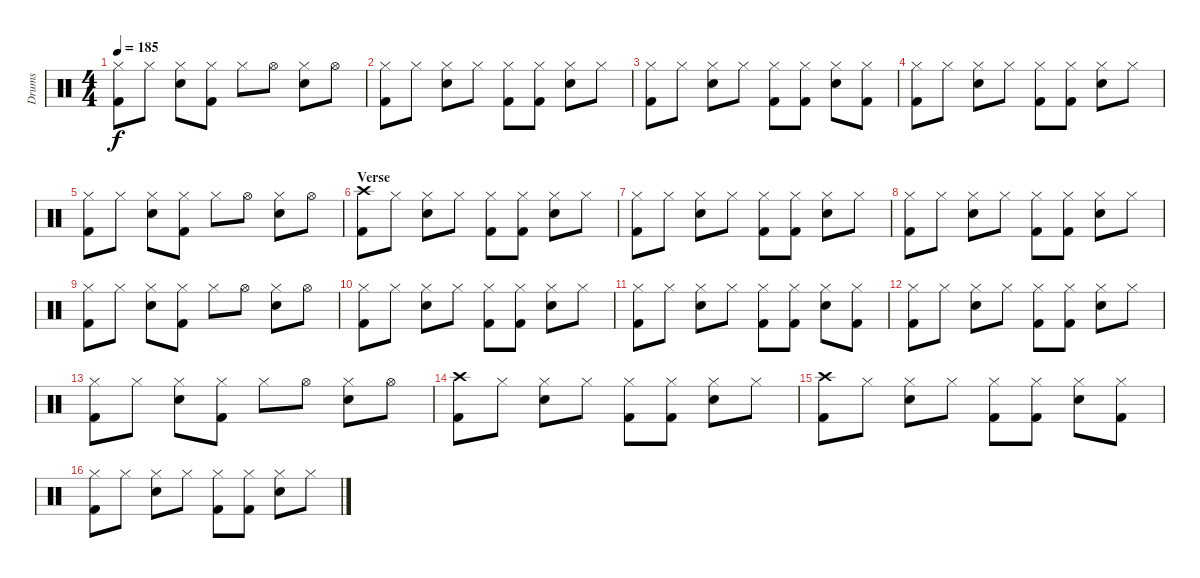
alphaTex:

\track ("Drums" "Drums") {instrument percussion}
\staff {score}
\articulation defaults
\ts (4 4)
\tempo 185
\clef neutral
\ks c
("Hi-Hat (closed)" "Kick (hit) 2").8{dy f} "Hi-Hat (closed)".8 ("Hi-Hat (closed)" "Electric Snare (hit)").8 ("Hi-Hat (closed)" "Kick (hit) 2").8 "Hi-Hat (closed)".8 "Hi-Hat (open)".8 ("Hi-Hat (closed)" "Electric Snare (hit)").8 "Hi-Hat (open)".8 |
("Hi-Hat (closed)" "Kick (hit) 2").8 "Hi-Hat (closed)".8 ("Hi-Hat (closed)" "Electric Snare (hit)").8 "Hi-Hat (closed)".8 ("Hi-Hat (closed)" "Kick (hit) 2").8 ("Hi-Hat (closed)" "Kick (hit) 2").8 ("Hi-Hat (closed)" "Electric Snare (hit)").8 "Hi-Hat (closed)".8 |
("Hi-Hat (closed)" "Kick (hit) 2").8 "Hi-Hat (closed)".8 ("Hi-Hat (closed)" "Electric Snare (hit)").8 "Hi-Hat (closed)".8 ("Hi-Hat (closed)" "Kick (hit) 2").8 ("Hi-Hat (closed)" "Kick (hit) 2").8 ("Hi-Hat (closed)" "Electric Snare (hit)").8 ("Hi-Hat (closed)" "Kick (hit) 2").8 |
("Hi-Hat (closed)" "Kick (hit) 2").8 "Hi-Hat (closed)".8 ("Hi-Hat (closed)" "Electric Snare (hit)").8 "Hi-Hat (closed)".8 ("Hi-Hat (closed)" "Kick (hit) 2").8 ("Hi-Hat (closed)" "Kick (hit) 2").8 ("Hi-Hat (closed)" "Electric Snare (hit)").8 "Hi-Hat (closed)".8 |
("Hi-Hat (closed)" "Kick (hit) 2").8 "Hi-Hat (closed)".8 ("Hi-Hat (closed)" "Electric Snare (hit)").8 ("Hi-Hat (closed)" "Kick (hit) 2").8 "Hi-Hat (closed)".8 "Hi-Hat (open)".8 ("Hi-Hat (closed)" "Electric Snare (hit)").8 "Hi-Hat (open)".8 |
\section ("" "Verse")
("Crash high (hit)" "Kick (hit) 2").8 "Hi-Hat (closed)".8 ("Hi-Hat (closed)" "Electric Snare (hit)").8 "Hi-Hat (closed)".8 ("Hi-Hat (closed)" "Kick (hit) 2").8 ("Hi-Hat (closed)" "Kick (hit) 2").8 ("Hi-Hat (closed)" "Electric Snare (hit)").8 "Hi-Hat (closed)".8 |
("Hi-Hat (closed)" "Kick (hit) 2").8 "Hi-Hat (closed)".8 ("Hi-Hat (closed)" "Electric Snare (hit)").8 "Hi-Hat (closed)".8 ("Hi-Hat (closed)" "Kick (hit) 2").8 ("Hi-Hat (closed)" "Kick (hit) 2").8 ("Hi-Hat (closed)" "Electric Snare (hit)").8 "Hi-Hat (closed)".8 |
("Hi-Hat (closed)" "Kick (hit) 2").8 "Hi-Hat (closed)".8 ("Hi-Hat (closed)" "Electric Snare (hit)").8 "Hi-Hat (closed)".8 ("Hi-Hat (closed)" "Kick (hit) 2").8 ("Hi-Hat (closed)" "Kick (hit) 2").8 ("Hi-Hat (closed)" "Electric Snare (hit)").8 "Hi-Hat (closed)".8 |
("Hi-Hat (closed)" "Kick (hit) 2").8 "Hi-Hat (closed)".8 ("Hi-Hat (closed)" "Electric Snare (hit)").8 ("Hi-Hat (closed)" "Kick (hit) 2").8 "Hi-Hat (closed)".8 "Hi-Hat (open)".8 ("Hi-Hat (closed)" "Electric Snare (hit)").8 "Hi-Hat (open)".8 |
("Hi-Hat (closed)" "Kick (hit) 2").8 "Hi-Hat (closed)".8 ("Hi-Hat (closed)" "Electric Snare (hit)").8 "Hi-Hat (closed)".8 ("Hi-Hat (closed)" "Kick (hit) 2").8 ("Hi-Hat (closed)" "Kick (hit) 2").8 ("Hi-Hat (closed)" "Electric Snare (hit)").8 "Hi-Hat (closed)".8 |
("Hi-Hat (closed)" "Kick (hit) 2").8 "Hi-Hat (closed)".8 ("Hi-Hat (closed)" "Electric Snare (hit)").8 "Hi-Hat (closed)".8 ("Hi-Hat (closed)" "Kick (hit) 2").8 ("Hi-Hat (closed)" "Kick (hit) 2").8 ("Hi-Hat (closed)" "Electric Snare (hit)").8 ("Hi-Hat (closed)" "Kick (hit) 2").8 |
("Hi-Hat (closed)" "Kick (hit) 2").8 "Hi-Hat (closed)".8 ("Hi-Hat (closed)" "Electric Snare (hit)").8 "Hi-Hat (closed)".8 ("Hi-Hat (closed)" "Kick (hit) 2").8 ("Hi-Hat (closed)" "Kick (hit) 2").8 ("Hi-Hat (closed)" "Electric Snare (hit)").8 "Hi-Hat (closed)".8 |
("Hi-Hat (closed)" "Kick (hit) 2").8 "Hi-Hat (closed)".8 ("Hi-Hat (closed)" "Electric Snare (hit)").8 ("Hi-Hat (closed)" "Kick (hit) 2").8 "Hi-Hat (closed)".8 "Hi-Hat (open)".8 ("Hi-Hat (closed)" "Electric Snare (hit)").8 "Hi-Hat (open)".8 |
("Crash high (hit)" "Kick (hit) 2").8 "Hi-Hat (closed)".8 ("Hi-Hat (closed)" "Electric Snare (hit)").8 "Hi-Hat (closed)".8 ("Hi-Hat (closed)" "Kick (hit) 2").8 ("Hi-Hat (closed)" "Kick (hit) 2").8 ("Hi-Hat (closed)" "Electric Snare (hit)").8 "Hi-Hat (closed)".8 |
("Crash high (hit)" "Kick (hit) 2").8 "Hi-Hat (closed)".8 ("Hi-Hat (closed)" "Electric Snare (hit)").8 "Hi-Hat (closed)".8 ("Hi-Hat (closed)" "Kick (hit) 2").8 ("Hi-Hat (closed)" "Kick (hit) 2").8 ("Hi-Hat (closed)" "Electric Snare (hit)").8 ("Hi-Hat (closed)" "Kick (hit) 2").8 |
("Hi-Hat (closed)" "Kick (hit) 2").8 "Hi-Hat (closed)".8 ("Hi-Hat (closed)" "Electric Snare (hit)").8 "Hi-Hat (closed)".8 ("Hi-Hat (closed)" "Kick (hit) 2").8 ("Hi-Hat (closed)" "Kick (hit) 2").8 ("Hi-Hat (closed)" "Electric Snare (hit)").8 "Hi-Hat (closed)".8
